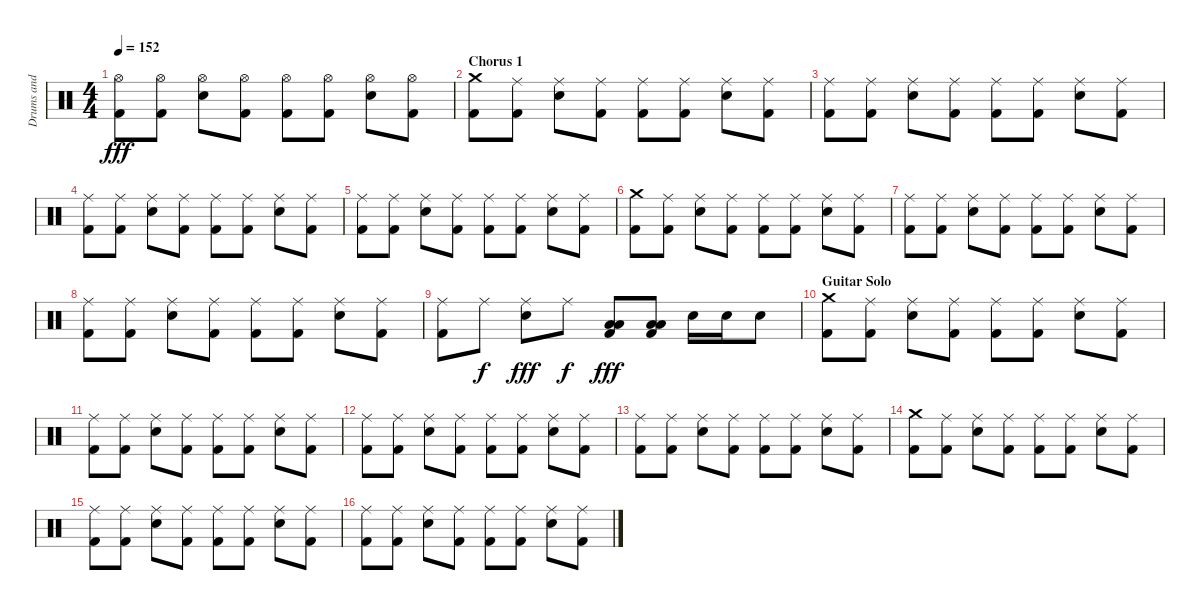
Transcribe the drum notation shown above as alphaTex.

\track ("Drums and Percussion" "Drums and ") {instrument percussion}
\staff {score}
\articulation defaults
\ts (4 4)
\tempo 152
\clef neutral
\ks c
("Hi-Hat (open)" "Kick (hit) 2").8{dy fff} ("Hi-Hat (open)" "Kick (hit) 2").8 ("Hi-Hat (open)" "Snare (hit) 2").8 ("Hi-Hat (open)" "Kick (hit) 2").8 ("Hi-Hat (open)" "Kick (hit) 2").8 ("Hi-Hat (open)" "Kick (hit) 2").8 ("Hi-Hat (open)" "Snare (hit) 2").8 ("Hi-Hat (open)" "Kick (hit) 2").8 |
\section ("" "Chorus 1")
("Crash medium (hit)" "Kick (hit) 2").8 ("Ride (middle)" "Kick (hit) 2").8 ("Ride (middle)" "Snare (hit) 2").8 ("Ride (middle)" "Kick (hit) 2").8 ("Ride (middle)" "Kick (hit) 2").8 ("Ride (middle)" "Kick (hit) 2").8 ("Ride (middle)" "Snare (hit) 2").8 ("Ride (middle)" "Kick (hit) 2").8 |
("Ride (middle)" "Kick (hit) 2").8 ("Ride (middle)" "Kick (hit) 2").8 ("Ride (middle)" "Snare (hit) 2").8 ("Ride (middle)" "Kick (hit) 2").8 ("Ride (middle)" "Kick (hit) 2").8 ("Ride (middle)" "Kick (hit) 2").8 ("Ride (middle)" "Snare (hit) 2").8 ("Ride (middle)" "Kick (hit) 2").8 |
("Ride (middle)" "Kick (hit) 2").8 ("Ride (middle)" "Kick (hit) 2").8 ("Ride (middle)" "Snare (hit) 2").8 ("Ride (middle)" "Kick (hit) 2").8 ("Ride (middle)" "Kick (hit) 2").8 ("Ride (middle)" "Kick (hit) 2").8 ("Ride (middle)" "Snare (hit) 2").8 ("Ride (middle)" "Kick (hit) 2").8 |
("Ride (middle)" "Kick (hit) 2").8 ("Ride (middle)" "Kick (hit) 2").8 ("Ride (middle)" "Snare (hit) 2").8 ("Ride (middle)" "Kick (hit) 2").8 ("Ride (middle)" "Kick (hit) 2").8 ("Ride (middle)" "Kick (hit) 2").8 ("Ride (middle)" "Snare (hit) 2").8 ("Ride (middle)" "Kick (hit) 2").8 |
("Crash medium (hit)" "Kick (hit) 2").8 ("Ride (middle)" "Kick (hit) 2").8 ("Ride (middle)" "Snare (hit) 2").8 ("Ride (middle)" "Kick (hit) 2").8 ("Ride (middle)" "Kick (hit) 2").8 ("Ride (middle)" "Kick (hit) 2").8 ("Ride (middle)" "Snare (hit) 2").8 ("Ride (middle)" "Kick (hit) 2").8 |
("Ride (middle)" "Kick (hit) 2").8 ("Ride (middle)" "Kick (hit) 2").8 ("Ride (middle)" "Snare (hit) 2").8 ("Ride (middle)" "Kick (hit) 2").8 ("Ride (middle)" "Kick (hit) 2").8 ("Ride (middle)" "Kick (hit) 2").8 ("Ride (middle)" "Snare (hit) 2").8 ("Ride (middle)" "Kick (hit) 2").8 |
("Ride (middle)" "Kick (hit) 2").8 ("Ride (middle)" "Kick (hit) 2").8 ("Ride (middle)" "Snare (hit) 2").8 ("Ride (middle)" "Kick (hit) 2").8 ("Ride (middle)" "Kick (hit) 2").8 ("Ride (middle)" "Kick (hit) 2").8 ("Ride (middle)" "Snare (hit) 2").8 ("Ride (middle)" "Kick (hit) 2").8 |
("Ride (middle)" "Kick (hit) 2").8 "Ride (middle)".8{dy f} ("Ride (middle)" "Snare (hit) 2").8{dy fff} "Ride (middle)".8{dy f} ("Low Tom (hit)" "Low Floor Tom (hit)" "Kick (hit) 2").8{dy fff} ("Low Tom (hit)" "Low Floor Tom (hit)" "Kick (hit) 2").8 "Snare (hit) 2".16 "Snare (hit) 2".16 "Snare (hit) 2".8 |
\section ("" "Guitar Solo")
("Crash medium (hit)" "Kick (hit) 2").8 ("Ride (middle)" "Kick (hit) 2").8 ("Ride (middle)" "Snare (hit) 2").8 ("Ride (middle)" "Kick (hit) 2").8 ("Ride (middle)" "Kick (hit) 2").8 ("Ride (middle)" "Kick (hit) 2").8 ("Ride (middle)" "Snare (hit) 2").8 ("Ride (middle)" "Kick (hit) 2").8 |
("Ride (middle)" "Kick (hit) 2").8 ("Ride (middle)" "Kick (hit) 2").8 ("Ride (middle)" "Snare (hit) 2").8 ("Ride (middle)" "Kick (hit) 2").8 ("Ride (middle)" "Kick (hit) 2").8 ("Ride (middle)" "Kick (hit) 2").8 ("Ride (middle)" "Snare (hit) 2").8 ("Ride (middle)" "Kick (hit) 2").8 |
("Ride (middle)" "Kick (hit) 2").8 ("Ride (middle)" "Kick (hit) 2").8 ("Ride (middle)" "Snare (hit) 2").8 ("Ride (middle)" "Kick (hit) 2").8 ("Ride (middle)" "Kick (hit) 2").8 ("Ride (middle)" "Kick (hit) 2").8 ("Ride (middle)" "Snare (hit) 2").8 ("Ride (middle)" "Kick (hit) 2").8 |
("Ride (middle)" "Kick (hit) 2").8 ("Ride (middle)" "Kick (hit) 2").8 ("Ride (middle)" "Snare (hit) 2").8 ("Ride (middle)" "Kick (hit) 2").8 ("Ride (middle)" "Kick (hit) 2").8 ("Ride (middle)" "Kick (hit) 2").8 ("Ride (middle)" "Snare (hit) 2").8 ("Ride (middle)" "Kick (hit) 2").8 |
("Crash medium (hit)" "Kick (hit) 2").8 ("Ride (middle)" "Kick (hit) 2").8 ("Ride (middle)" "Snare (hit) 2").8 ("Ride (middle)" "Kick (hit) 2").8 ("Ride (middle)" "Kick (hit) 2").8 ("Ride (middle)" "Kick (hit) 2").8 ("Ride (middle)" "Snare (hit) 2").8 ("Ride (middle)" "Kick (hit) 2").8 |
("Ride (middle)" "Kick (hit) 2").8 ("Ride (middle)" "Kick (hit) 2").8 ("Ride (middle)" "Snare (hit) 2").8 ("Ride (middle)" "Kick (hit) 2").8 ("Ride (middle)" "Kick (hit) 2").8 ("Ride (middle)" "Kick (hit) 2").8 ("Ride (middle)" "Snare (hit) 2").8 ("Ride (middle)" "Kick (hit) 2").8 |
("Ride (middle)" "Kick (hit) 2").8 ("Ride (middle)" "Kick (hit) 2").8 ("Ride (middle)" "Snare (hit) 2").8 ("Ride (middle)" "Kick (hit) 2").8 ("Ride (middle)" "Kick (hit) 2").8 ("Ride (middle)" "Kick (hit) 2").8 ("Ride (middle)" "Snare (hit) 2").8 ("Ride (middle)" "Kick (hit) 2").8
